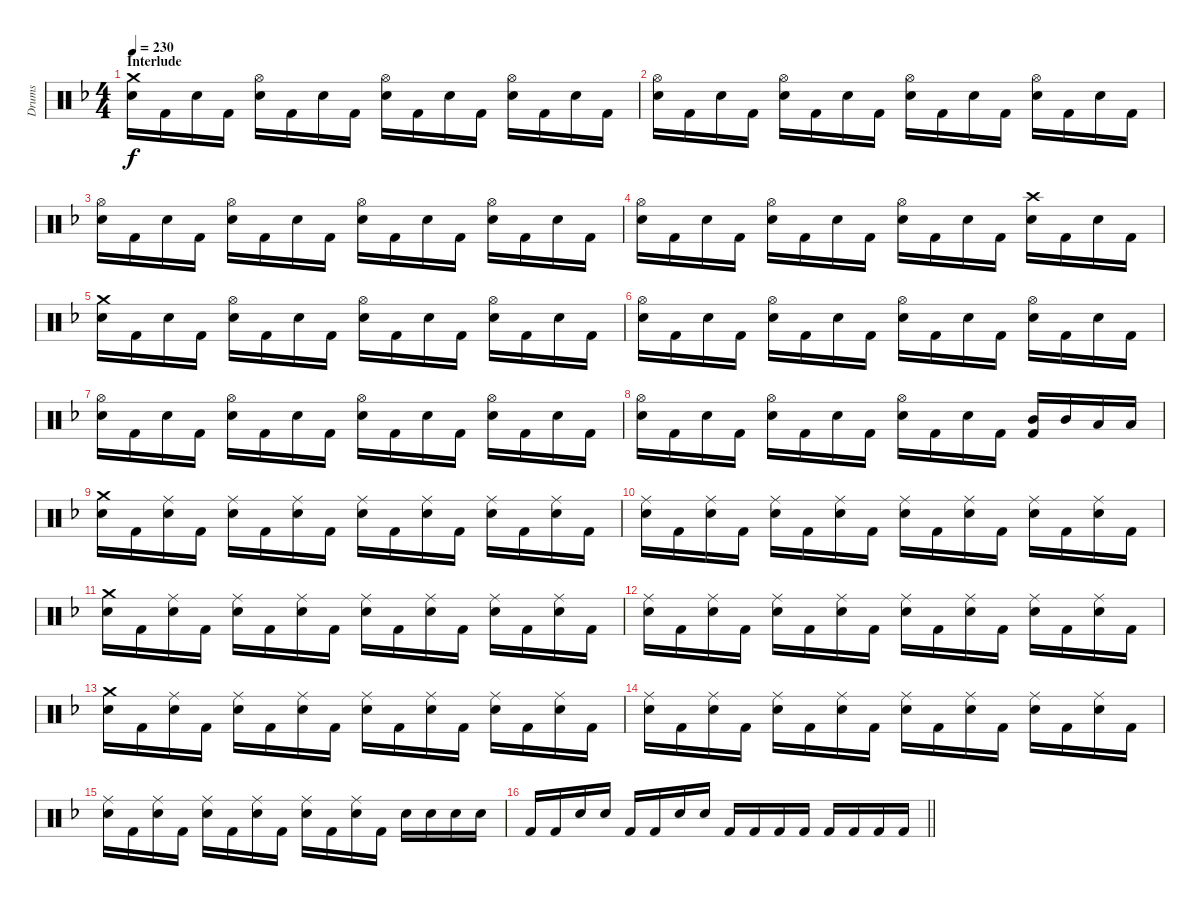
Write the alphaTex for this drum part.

\track ("Drums" "Drums") {instrument percussion}
\staff {score}
\articulation defaults
\ts (4 4)
\section ("" "Interlude")
\tempo 230
\clef neutral
\ks f
("Crash medium (hit)" "Snare (hit) 2").16{dy f} "Kick (hit) 2".16 "Snare (hit) 2".16 "Kick (hit) 2".16 ("Hi-Hat (open)" "Snare (hit) 2").16 "Kick (hit) 2".16 "Snare (hit) 2".16 "Kick (hit) 2".16 ("Hi-Hat (open)" "Snare (hit) 2").16 "Kick (hit) 2".16 "Snare (hit) 2".16 "Kick (hit) 2".16 ("Hi-Hat (open)" "Snare (hit) 2").16 "Kick (hit) 2".16 "Snare (hit) 2".16 "Kick (hit) 2".16 |
("Hi-Hat (open)" "Snare (hit) 2").16 "Kick (hit) 2".16 "Snare (hit) 2".16 "Kick (hit) 2".16 ("Hi-Hat (open)" "Snare (hit) 2").16 "Kick (hit) 2".16 "Snare (hit) 2".16 "Kick (hit) 2".16 ("Hi-Hat (open)" "Snare (hit) 2").16 "Kick (hit) 2".16 "Snare (hit) 2".16 "Kick (hit) 2".16 ("Hi-Hat (open)" "Snare (hit) 2").16 "Kick (hit) 2".16 "Snare (hit) 2".16 "Kick (hit) 2".16 |
("Hi-Hat (open)" "Snare (hit) 2").16 "Kick (hit) 2".16 "Snare (hit) 2".16 "Kick (hit) 2".16 ("Hi-Hat (open)" "Snare (hit) 2").16 "Kick (hit) 2".16 "Snare (hit) 2".16 "Kick (hit) 2".16 ("Hi-Hat (open)" "Snare (hit) 2").16 "Kick (hit) 2".16 "Snare (hit) 2".16 "Kick (hit) 2".16 ("Hi-Hat (open)" "Snare (hit) 2").16 "Kick (hit) 2".16 "Snare (hit) 2".16 "Kick (hit) 2".16 |
("Hi-Hat (open)" "Snare (hit) 2").16 "Kick (hit) 2".16 "Snare (hit) 2".16 "Kick (hit) 2".16 ("Hi-Hat (open)" "Snare (hit) 2").16 "Kick (hit) 2".16 "Snare (hit) 2".16 "Kick (hit) 2".16 ("Hi-Hat (open)" "Snare (hit) 2").16 "Kick (hit) 2".16 "Snare (hit) 2".16 "Kick (hit) 2".16 ("Crash high (hit)" "Snare (hit) 2").16 "Kick (hit) 2".16 "Snare (hit) 2".16 "Kick (hit) 2".16 |
("Crash medium (hit)" "Snare (hit) 2").16 "Kick (hit) 2".16 "Snare (hit) 2".16 "Kick (hit) 2".16 ("Hi-Hat (open)" "Snare (hit) 2").16 "Kick (hit) 2".16 "Snare (hit) 2".16 "Kick (hit) 2".16 ("Hi-Hat (open)" "Snare (hit) 2").16 "Kick (hit) 2".16 "Snare (hit) 2".16 "Kick (hit) 2".16 ("Hi-Hat (open)" "Snare (hit) 2").16 "Kick (hit) 2".16 "Snare (hit) 2".16 "Kick (hit) 2".16 |
("Hi-Hat (open)" "Snare (hit) 2").16 "Kick (hit) 2".16 "Snare (hit) 2".16 "Kick (hit) 2".16 ("Hi-Hat (open)" "Snare (hit) 2").16 "Kick (hit) 2".16 "Snare (hit) 2".16 "Kick (hit) 2".16 ("Hi-Hat (open)" "Snare (hit) 2").16 "Kick (hit) 2".16 "Snare (hit) 2".16 "Kick (hit) 2".16 ("Hi-Hat (open)" "Snare (hit) 2").16 "Kick (hit) 2".16 "Snare (hit) 2".16 "Kick (hit) 2".16 |
("Hi-Hat (open)" "Snare (hit) 2").16 "Kick (hit) 2".16 "Snare (hit) 2".16 "Kick (hit) 2".16 ("Hi-Hat (open)" "Snare (hit) 2").16 "Kick (hit) 2".16 "Snare (hit) 2".16 "Kick (hit) 2".16 ("Hi-Hat (open)" "Snare (hit) 2").16 "Kick (hit) 2".16 "Snare (hit) 2".16 "Kick (hit) 2".16 ("Hi-Hat (open)" "Snare (hit) 2").16 "Kick (hit) 2".16 "Snare (hit) 2".16 "Kick (hit) 2".16 |
("Hi-Hat (open)" "Snare (hit) 2").16 "Kick (hit) 2".16 "Snare (hit) 2".16 "Kick (hit) 2".16 ("Hi-Hat (open)" "Snare (hit) 2").16 "Kick (hit) 2".16 "Snare (hit) 2".16 "Kick (hit) 2".16 ("Hi-Hat (open)" "Snare (hit) 2").16 "Kick (hit) 2".16 "Snare (hit) 2".16 "Kick (hit) 2".16 ("Mid Tom (hit)" "Kick (hit) 2").16 "Mid Tom (hit)".16 "Low Tom (hit)".16 "Low Tom (hit)".16 |
("Crash medium (hit)" "Snare (hit) 2").16 "Kick (hit) 2".16 ("Ride (middle)" "Snare (hit) 2").16 "Kick (hit) 2".16 ("Ride (middle)" "Snare (hit) 2").16 "Kick (hit) 2".16 ("Ride (middle)" "Snare (hit) 2").16 "Kick (hit) 2".16 ("Ride (middle)" "Snare (hit) 2").16 "Kick (hit) 2".16 ("Ride (middle)" "Snare (hit) 2").16 "Kick (hit) 2".16 ("Ride (middle)" "Snare (hit) 2").16 "Kick (hit) 2".16 ("Ride (middle)" "Snare (hit) 2").16 "Kick (hit) 2".16 |
("Ride (middle)" "Snare (hit) 2").16 "Kick (hit) 2".16 ("Ride (middle)" "Snare (hit) 2").16 "Kick (hit) 2".16 ("Ride (middle)" "Snare (hit) 2").16 "Kick (hit) 2".16 ("Ride (middle)" "Snare (hit) 2").16 "Kick (hit) 2".16 ("Ride (middle)" "Snare (hit) 2").16 "Kick (hit) 2".16 ("Ride (middle)" "Snare (hit) 2").16 "Kick (hit) 2".16 ("Ride (middle)" "Snare (hit) 2").16 "Kick (hit) 2".16 ("Ride (middle)" "Snare (hit) 2").16 "Kick (hit) 2".16 |
("Crash medium (hit)" "Snare (hit) 2").16 "Kick (hit) 2".16 ("Ride (middle)" "Snare (hit) 2").16 "Kick (hit) 2".16 ("Ride (middle)" "Snare (hit) 2").16 "Kick (hit) 2".16 ("Ride (middle)" "Snare (hit) 2").16 "Kick (hit) 2".16 ("Ride (middle)" "Snare (hit) 2").16 "Kick (hit) 2".16 ("Ride (middle)" "Snare (hit) 2").16 "Kick (hit) 2".16 ("Ride (middle)" "Snare (hit) 2").16 "Kick (hit) 2".16 ("Ride (middle)" "Snare (hit) 2").16 "Kick (hit) 2".16 |
("Ride (middle)" "Snare (hit) 2").16 "Kick (hit) 2".16 ("Ride (middle)" "Snare (hit) 2").16 "Kick (hit) 2".16 ("Ride (middle)" "Snare (hit) 2").16 "Kick (hit) 2".16 ("Ride (middle)" "Snare (hit) 2").16 "Kick (hit) 2".16 ("Ride (middle)" "Snare (hit) 2").16 "Kick (hit) 2".16 ("Ride (middle)" "Snare (hit) 2").16 "Kick (hit) 2".16 ("Ride (middle)" "Snare (hit) 2").16 "Kick (hit) 2".16 ("Ride (middle)" "Snare (hit) 2").16 "Kick (hit) 2".16 |
("Crash medium (hit)" "Snare (hit) 2").16 "Kick (hit) 2".16 ("Ride (middle)" "Snare (hit) 2").16 "Kick (hit) 2".16 ("Ride (middle)" "Snare (hit) 2").16 "Kick (hit) 2".16 ("Ride (middle)" "Snare (hit) 2").16 "Kick (hit) 2".16 ("Ride (middle)" "Snare (hit) 2").16 "Kick (hit) 2".16 ("Ride (middle)" "Snare (hit) 2").16 "Kick (hit) 2".16 ("Ride (middle)" "Snare (hit) 2").16 "Kick (hit) 2".16 ("Ride (middle)" "Snare (hit) 2").16 "Kick (hit) 2".16 |
("Ride (middle)" "Snare (hit) 2").16 "Kick (hit) 2".16 ("Ride (middle)" "Snare (hit) 2").16 "Kick (hit) 2".16 ("Ride (middle)" "Snare (hit) 2").16 "Kick (hit) 2".16 ("Ride (middle)" "Snare (hit) 2").16 "Kick (hit) 2".16 ("Ride (middle)" "Snare (hit) 2").16 "Kick (hit) 2".16 ("Ride (middle)" "Snare (hit) 2").16 "Kick (hit) 2".16 ("Ride (middle)" "Snare (hit) 2").16 "Kick (hit) 2".16 ("Ride (middle)" "Snare (hit) 2").16 "Kick (hit) 2".16 |
("Ride (middle)" "Snare (hit) 2").16 "Kick (hit) 2".16 ("Ride (middle)" "Snare (hit) 2").16 "Kick (hit) 2".16 ("Ride (middle)" "Snare (hit) 2").16 "Kick (hit) 2".16 ("Ride (middle)" "Snare (hit) 2").16 "Kick (hit) 2".16 ("Ride (middle)" "Snare (hit) 2").16 "Kick (hit) 2".16 ("Ride (middle)" "Snare (hit) 2").16 "Kick (hit) 2".16 "Snare (hit) 2".16 "Snare (hit) 2".16 "Snare (hit) 2".16 "Snare (hit) 2".16 |
\barLineRight lightlight "Kick (hit) 2".16 "Kick (hit) 2".16 "Snare (hit) 2".16 "Snare (hit) 2".16 "Kick (hit) 2".16 "Kick (hit) 2".16 "Snare (hit) 2".16 "Snare (hit) 2".16 "Kick (hit) 2".16 "Kick (hit) 2".16 "Kick (hit) 2".16 "Kick (hit) 2".16 "Kick (hit) 2".16 "Kick (hit) 2".16 "Kick (hit) 2".16 "Kick (hit) 2".16
